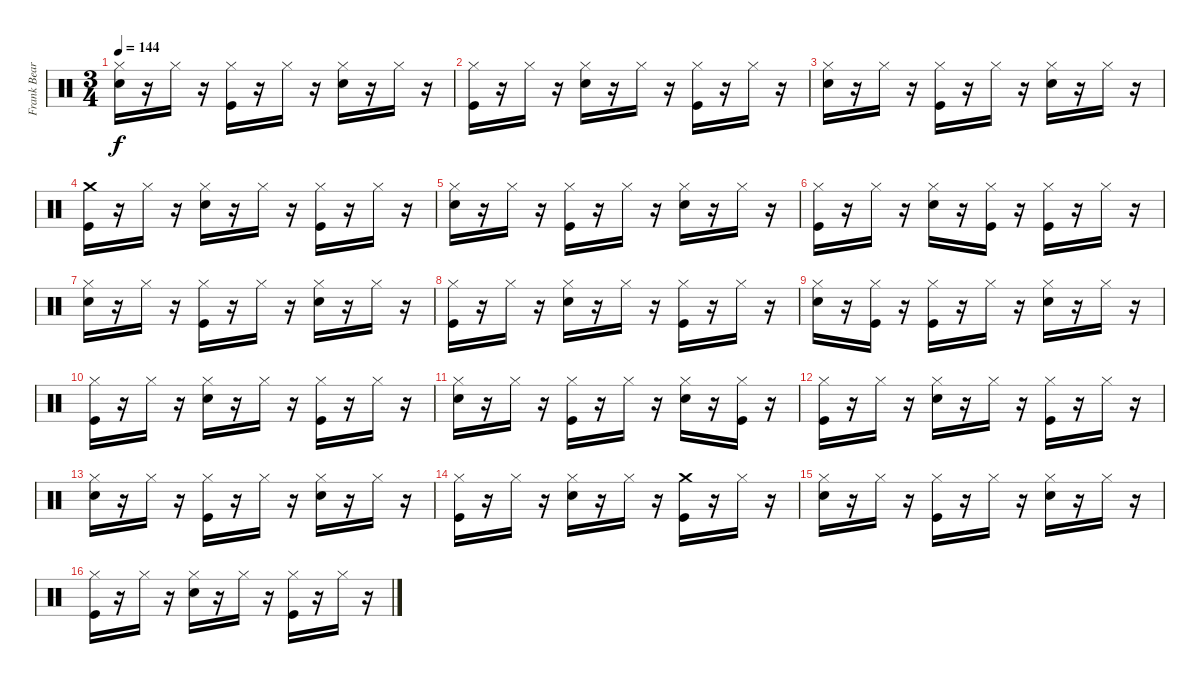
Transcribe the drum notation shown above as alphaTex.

\track ("Frank Beard" "Frank Bear") {instrument percussion}
\staff {score}
\articulation defaults
\ts (3 4)
\tempo 144
\clef neutral
\ks c
("Hi-Hat (closed)" "Electric Snare (hit)").16{dy f} r.16 "Hi-Hat (closed)".16 r.16 ("Hi-Hat (closed)" "Kick (hit)").16 r.16 "Hi-Hat (closed)".16 r.16 ("Hi-Hat (closed)" "Electric Snare (hit)").16 r.16 "Hi-Hat (closed)".16 r.16 |
("Hi-Hat (closed)" "Kick (hit)").16 r.16 "Hi-Hat (closed)".16 r.16 ("Hi-Hat (closed)" "Electric Snare (hit)").16 r.16 "Hi-Hat (closed)".16 r.16 ("Hi-Hat (closed)" "Kick (hit)").16 r.16 "Hi-Hat (closed)".16 r.16 |
("Hi-Hat (closed)" "Electric Snare (hit)").16 r.16 "Hi-Hat (closed)".16 r.16 ("Hi-Hat (closed)" "Kick (hit)").16 r.16 "Hi-Hat (closed)".16 r.16 ("Hi-Hat (closed)" "Electric Snare (hit)").16 r.16 "Hi-Hat (closed)".16 r.16 |
("Crash medium (hit)" "Kick (hit)").16 r.16 "Hi-Hat (closed)".16 r.16 ("Hi-Hat (closed)" "Electric Snare (hit)").16 r.16 "Hi-Hat (closed)".16 r.16 ("Hi-Hat (closed)" "Kick (hit)").16 r.16 "Hi-Hat (closed)".16 r.16 |
("Hi-Hat (closed)" "Electric Snare (hit)").16 r.16 "Hi-Hat (closed)".16 r.16 ("Hi-Hat (closed)" "Kick (hit)").16 r.16 "Hi-Hat (closed)".16 r.16 ("Hi-Hat (closed)" "Electric Snare (hit)").16 r.16 "Hi-Hat (closed)".16 r.16 |
("Hi-Hat (closed)" "Kick (hit)").16 r.16 "Hi-Hat (closed)".16 r.16 ("Hi-Hat (closed)" "Electric Snare (hit)").16 r.16 ("Hi-Hat (closed)" "Kick (hit)").16 r.16 ("Hi-Hat (closed)" "Kick (hit)").16 r.16 "Hi-Hat (closed)".16 r.16 |
("Hi-Hat (closed)" "Electric Snare (hit)").16 r.16 "Hi-Hat (closed)".16 r.16 ("Hi-Hat (closed)" "Kick (hit)").16 r.16 "Hi-Hat (closed)".16 r.16 ("Hi-Hat (closed)" "Electric Snare (hit)").16 r.16 "Hi-Hat (closed)".16 r.16 |
("Hi-Hat (closed)" "Kick (hit)").16 r.16 "Hi-Hat (closed)".16 r.16 ("Hi-Hat (closed)" "Electric Snare (hit)").16 r.16 "Hi-Hat (closed)".16 r.16 ("Hi-Hat (closed)" "Kick (hit)").16 r.16 "Hi-Hat (closed)".16 r.16 |
("Hi-Hat (closed)" "Electric Snare (hit)").16 r.16 ("Hi-Hat (closed)" "Kick (hit)").16 r.16 ("Hi-Hat (closed)" "Kick (hit)").16 r.16 "Hi-Hat (closed)".16 r.16 ("Hi-Hat (closed)" "Electric Snare (hit)").16 r.16 "Hi-Hat (closed)".16 r.16 |
("Hi-Hat (closed)" "Kick (hit)").16 r.16 "Hi-Hat (closed)".16 r.16 ("Hi-Hat (closed)" "Electric Snare (hit)").16 r.16 "Hi-Hat (closed)".16 r.16 ("Hi-Hat (closed)" "Kick (hit)").16 r.16 "Hi-Hat (closed)".16 r.16 |
("Hi-Hat (closed)" "Electric Snare (hit)").16 r.16 "Hi-Hat (closed)".16 r.16 ("Hi-Hat (closed)" "Kick (hit)").16 r.16 "Hi-Hat (closed)".16 r.16 ("Hi-Hat (closed)" "Electric Snare (hit)").16 r.16 ("Hi-Hat (closed)" "Kick (hit)").16 r.16 |
("Hi-Hat (closed)" "Kick (hit)").16 r.16 "Hi-Hat (closed)".16 r.16 ("Hi-Hat (closed)" "Electric Snare (hit)").16 r.16 "Hi-Hat (closed)".16 r.16 ("Hi-Hat (closed)" "Kick (hit)").16 r.16 "Hi-Hat (closed)".16 r.16 |
("Hi-Hat (closed)" "Electric Snare (hit)").16 r.16 "Hi-Hat (closed)".16 r.16 ("Hi-Hat (closed)" "Kick (hit)").16 r.16 "Hi-Hat (closed)".16 r.16 ("Hi-Hat (closed)" "Electric Snare (hit)").16 r.16 "Hi-Hat (closed)".16 r.16 |
("Hi-Hat (closed)" "Kick (hit)").16 r.16 "Hi-Hat (closed)".16 r.16 ("Hi-Hat (closed)" "Electric Snare (hit)").16 r.16 "Hi-Hat (closed)".16 r.16 ("Crash medium (hit)" "Kick (hit)").16 r.16 "Hi-Hat (closed)".16 r.16 |
("Hi-Hat (closed)" "Electric Snare (hit)").16 r.16 "Hi-Hat (closed)".16 r.16 ("Hi-Hat (closed)" "Kick (hit)").16 r.16 "Hi-Hat (closed)".16 r.16 ("Hi-Hat (closed)" "Electric Snare (hit)").16 r.16 "Hi-Hat (closed)".16 r.16 |
("Hi-Hat (closed)" "Kick (hit)").16 r.16 "Hi-Hat (closed)".16 r.16 ("Hi-Hat (closed)" "Electric Snare (hit)").16 r.16 "Hi-Hat (closed)".16 r.16 ("Hi-Hat (closed)" "Kick (hit)").16 r.16 "Hi-Hat (closed)".16 r.16
